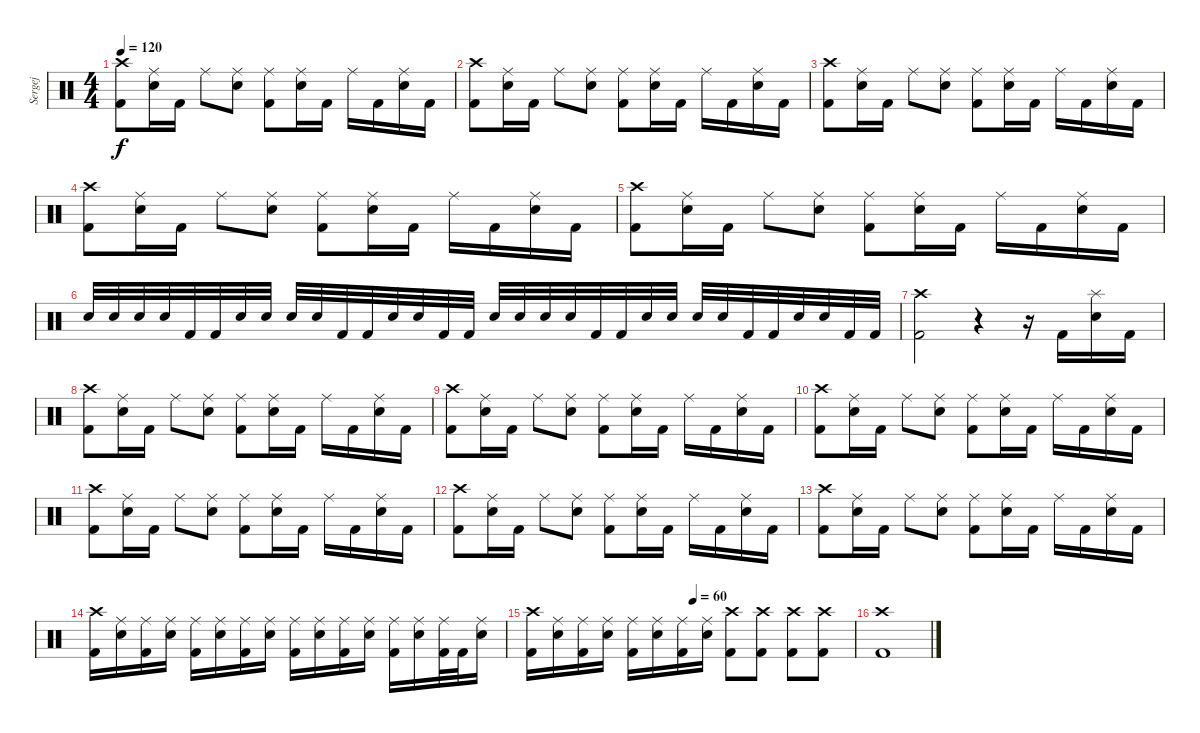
\track ("Sergej" "Sergej") {instrument percussion}
\staff {score}
\articulation defaults
\ts (4 4)
\tempo 120
\clef neutral
\ks c
("Crash high (hit)" "Kick (hit) 2").8{dy f} ("Ride (middle)" "Snare (hit) 2").16 "Kick (hit) 2".16 "Ride (middle)".8 ("Ride (middle)" "Snare (hit) 2").8 ("Ride (middle)" "Kick (hit) 2").8 ("Ride (middle)" "Snare (hit) 2").16 "Kick (hit) 2".16 "Ride (middle)".16 "Kick (hit) 2".16 ("Ride (middle)" "Snare (hit) 2").16 "Kick (hit) 2".16 |
("Crash high (hit)" "Kick (hit) 2").8 ("Ride (middle)" "Snare (hit) 2").16 "Kick (hit) 2".16 "Ride (middle)".8 ("Ride (middle)" "Snare (hit) 2").8 ("Ride (middle)" "Kick (hit) 2").8 ("Ride (middle)" "Snare (hit) 2").16 "Kick (hit) 2".16 "Ride (middle)".16 "Kick (hit) 2".16 ("Ride (middle)" "Snare (hit) 2").16 "Kick (hit) 2".16 |
("Crash high (hit)" "Kick (hit) 2").8 ("Ride (middle)" "Snare (hit) 2").16 "Kick (hit) 2".16 "Ride (middle)".8 ("Ride (middle)" "Snare (hit) 2").8 ("Ride (middle)" "Kick (hit) 2").8 ("Ride (middle)" "Snare (hit) 2").16 "Kick (hit) 2".16 "Ride (middle)".16 "Kick (hit) 2".16 ("Ride (middle)" "Snare (hit) 2").16 "Kick (hit) 2".16 |
("Crash high (hit)" "Kick (hit) 2").8 ("Ride (middle)" "Snare (hit) 2").16 "Kick (hit) 2".16 "Ride (middle)".8 ("Ride (middle)" "Snare (hit) 2").8 ("Ride (middle)" "Kick (hit) 2").8 ("Ride (middle)" "Snare (hit) 2").16 "Kick (hit) 2".16 "Ride (middle)".16 "Kick (hit) 2".16 ("Ride (middle)" "Snare (hit) 2").16 "Kick (hit) 2".16 |
("Crash high (hit)" "Kick (hit) 2").8 ("Ride (middle)" "Snare (hit) 2").16 "Kick (hit) 2".16 "Ride (middle)".8 ("Ride (middle)" "Snare (hit) 2").8 ("Ride (middle)" "Kick (hit) 2").8 ("Ride (middle)" "Snare (hit) 2").16 "Kick (hit) 2".16 "Ride (middle)".16 "Kick (hit) 2".16 ("Ride (middle)" "Snare (hit) 2").16 "Kick (hit) 2".16 |
"Snare (hit) 2".32 "Snare (hit) 2".32 "Snare (hit) 2".32 "Snare (hit) 2".32 "Kick (hit) 2".32 "Kick (hit) 2".32 "Snare (hit) 2".32 "Snare (hit) 2".32 "Snare (hit) 2".32 "Snare (hit) 2".32 "Kick (hit) 2".32 "Kick (hit) 2".32 "Snare (hit) 2".32 "Snare (hit) 2".32 "Kick (hit) 2".32 "Kick (hit) 2".32 "Snare (hit) 2".32 "Snare (hit) 2".32 "Snare (hit) 2".32 "Snare (hit) 2".32 "Kick (hit) 2".32 "Kick (hit) 2".32 "Snare (hit) 2".32 "Snare (hit) 2".32 "Snare (hit) 2".32 "Snare (hit) 2".32 "Kick (hit) 2".32 "Kick (hit) 2".32 "Snare (hit) 2".32 "Snare (hit) 2".32 "Kick (hit) 2".32 "Kick (hit) 2".32 |
("Crash high (hit)" "Kick (hit) 2").2 r.4 r.16 "Kick (hit) 2".16 ("Splash (hit)" "Snare (hit) 2").16 "Kick (hit) 2".16 |
("Crash high (hit)" "Kick (hit) 2").8 ("Ride (middle)" "Snare (hit) 2").16 "Kick (hit) 2".16 "Ride (middle)".8 ("Ride (middle)" "Snare (hit) 2").8 ("Ride (middle)" "Kick (hit) 2").8 ("Ride (middle)" "Snare (hit) 2").16 "Kick (hit) 2".16 "Ride (middle)".16 "Kick (hit) 2".16 ("Ride (middle)" "Snare (hit) 2").16 "Kick (hit) 2".16 |
("Crash high (hit)" "Kick (hit) 2").8 ("Ride (middle)" "Snare (hit) 2").16 "Kick (hit) 2".16 "Ride (middle)".8 ("Ride (middle)" "Snare (hit) 2").8 ("Ride (middle)" "Kick (hit) 2").8 ("Ride (middle)" "Snare (hit) 2").16 "Kick (hit) 2".16 "Ride (middle)".16 "Kick (hit) 2".16 ("Ride (middle)" "Snare (hit) 2").16 "Kick (hit) 2".16 |
("Crash high (hit)" "Kick (hit) 2").8 ("Ride (middle)" "Snare (hit) 2").16 "Kick (hit) 2".16 "Ride (middle)".8 ("Ride (middle)" "Snare (hit) 2").8 ("Ride (middle)" "Kick (hit) 2").8 ("Ride (middle)" "Snare (hit) 2").16 "Kick (hit) 2".16 "Ride (middle)".16 "Kick (hit) 2".16 ("Ride (middle)" "Snare (hit) 2").16 "Kick (hit) 2".16 |
("Crash high (hit)" "Kick (hit) 2").8 ("Ride (middle)" "Snare (hit) 2").16 "Kick (hit) 2".16 "Ride (middle)".8 ("Ride (middle)" "Snare (hit) 2").8 ("Ride (middle)" "Kick (hit) 2").8 ("Ride (middle)" "Snare (hit) 2").16 "Kick (hit) 2".16 "Ride (middle)".16 "Kick (hit) 2".16 ("Ride (middle)" "Snare (hit) 2").16 "Kick (hit) 2".16 |
("Crash high (hit)" "Kick (hit) 2").8 ("Ride (middle)" "Snare (hit) 2").16 "Kick (hit) 2".16 "Ride (middle)".8 ("Ride (middle)" "Snare (hit) 2").8 ("Ride (middle)" "Kick (hit) 2").8 ("Ride (middle)" "Snare (hit) 2").16 "Kick (hit) 2".16 "Ride (middle)".16 "Kick (hit) 2".16 ("Ride (middle)" "Snare (hit) 2").16 "Kick (hit) 2".16 |
("Crash high (hit)" "Kick (hit) 2").8 ("Ride (middle)" "Snare (hit) 2").16 "Kick (hit) 2".16 "Ride (middle)".8 ("Ride (middle)" "Snare (hit) 2").8 ("Ride (middle)" "Kick (hit) 2").8 ("Ride (middle)" "Snare (hit) 2").16 "Kick (hit) 2".16 "Ride (middle)".16 "Kick (hit) 2".16 ("Ride (middle)" "Snare (hit) 2").16 "Kick (hit) 2".16 |
("Crash high (hit)" "Kick (hit) 2").16 ("Ride (middle)" "Snare (hit) 2").16 ("Ride (middle)" "Kick (hit) 2").16 ("Ride (middle)" "Snare (hit) 2").16 ("Ride (middle)" "Kick (hit) 2").16 ("Ride (middle)" "Snare (hit) 2").16 ("Ride (middle)" "Kick (hit) 2").16 ("Ride (middle)" "Snare (hit) 2").16 ("Ride (middle)" "Kick (hit) 2").16 ("Ride (middle)" "Snare (hit) 2").16 ("Ride (middle)" "Kick (hit) 2").16 ("Ride (middle)" "Snare (hit) 2").16 ("Ride (middle)" "Kick (hit) 2").16 ("Ride (middle)" "Snare (hit) 2").16 ("Ride (middle)" "Kick (hit) 2").32 "Kick (hit) 2".32 ("Ride (middle)" "Snare (hit) 2").16 |
\tempo (60 0.5)
("Crash high (hit)" "Kick (hit) 2").16 ("Ride (middle)" "Snare (hit) 2").16 ("Ride (middle)" "Kick (hit) 2").16 ("Ride (middle)" "Snare (hit) 2").16 ("Ride (middle)" "Kick (hit) 2").16 ("Ride (middle)" "Snare (hit) 2").16 ("Ride (middle)" "Kick (hit) 2").16 ("Ride (middle)" "Snare (hit) 2").16 ("Crash high (hit)" "Kick (hit) 2").8 ("Crash high (hit)" "Kick (hit) 2").8 ("Crash high (hit)" "Kick (hit) 2").8 ("Crash high (hit)" "Kick (hit) 2").8 |
("Crash high (hit)" "Kick (hit) 2").1
